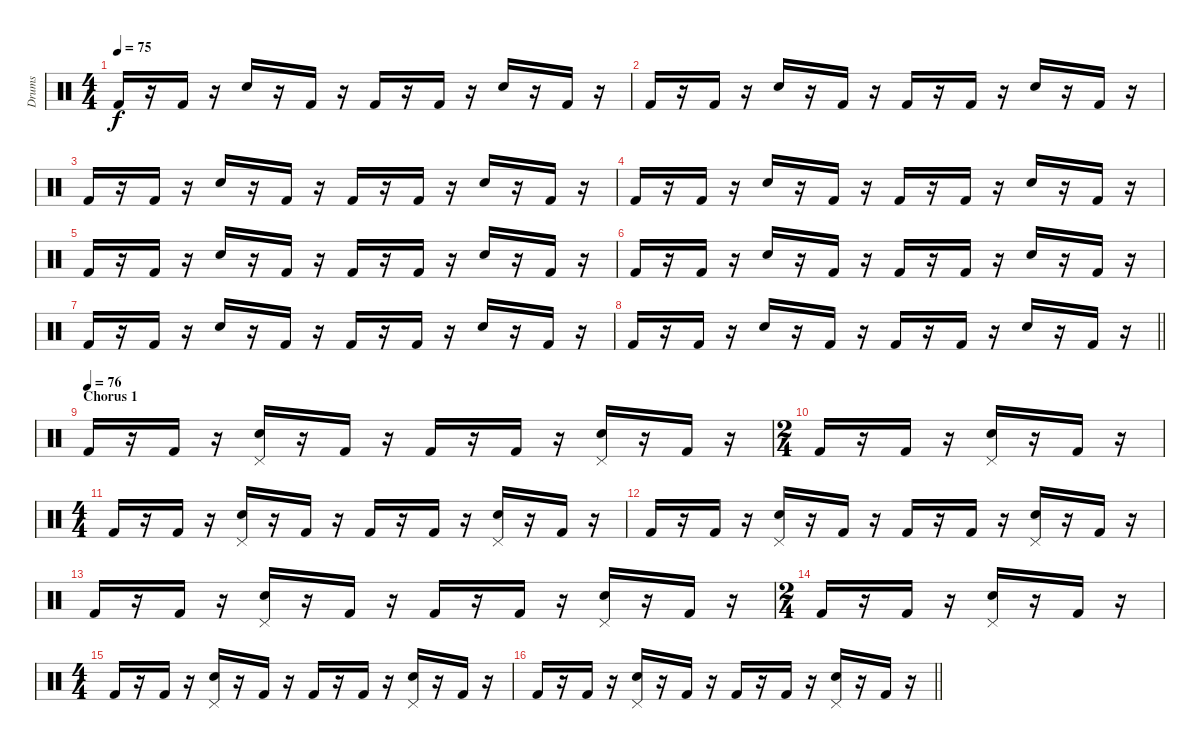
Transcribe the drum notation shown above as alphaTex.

\track ("Drums" "Drums") {instrument percussion}
\staff {score}
\articulation defaults
\ts (4 4)
\tempo 75
\clef neutral
\ks c "Kick (hit) 2".16{dy f}
r.16 "Kick (hit) 2".16 r.16 "Snare (hit) 2".16 r.16 "Kick (hit) 2".16 r.16 "Kick (hit) 2".16 r.16 "Kick (hit) 2".16 r.16 "Snare (hit) 2".16 r.16 "Kick (hit) 2".16 r.16 |
"Kick (hit) 2".16 r.16 "Kick (hit) 2".16 r.16 "Snare (hit) 2".16 r.16 "Kick (hit) 2".16 r.16 "Kick (hit) 2".16 r.16 "Kick (hit) 2".16 r.16 "Snare (hit) 2".16 r.16 "Kick (hit) 2".16 r.16 |
"Kick (hit) 2".16 r.16 "Kick (hit) 2".16 r.16 "Snare (hit) 2".16 r.16 "Kick (hit) 2".16 r.16 "Kick (hit) 2".16 r.16 "Kick (hit) 2".16 r.16 "Snare (hit) 2".16 r.16 "Kick (hit) 2".16 r.16 |
"Kick (hit) 2".16 r.16 "Kick (hit) 2".16 r.16 "Snare (hit) 2".16 r.16 "Kick (hit) 2".16 r.16 "Kick (hit) 2".16 r.16 "Kick (hit) 2".16 r.16 "Snare (hit) 2".16 r.16 "Kick (hit) 2".16 r.16 |
"Kick (hit) 2".16 r.16 "Kick (hit) 2".16 r.16 "Snare (hit) 2".16 r.16 "Kick (hit) 2".16 r.16 "Kick (hit) 2".16 r.16 "Kick (hit) 2".16 r.16 "Snare (hit) 2".16 r.16 "Kick (hit) 2".16 r.16 |
"Kick (hit) 2".16 r.16 "Kick (hit) 2".16 r.16 "Snare (hit) 2".16 r.16 "Kick (hit) 2".16 r.16 "Kick (hit) 2".16 r.16 "Kick (hit) 2".16 r.16 "Snare (hit) 2".16 r.16 "Kick (hit) 2".16 r.16 |
"Kick (hit) 2".16 r.16 "Kick (hit) 2".16 r.16 "Snare (hit) 2".16 r.16 "Kick (hit) 2".16 r.16 "Kick (hit) 2".16 r.16 "Kick (hit) 2".16 r.16 "Snare (hit) 2".16 r.16 "Kick (hit) 2".16 r.16 |
\barLineRight lightlight "Kick (hit) 2".16
r.16 "Kick (hit) 2".16 r.16 "Snare (hit) 2".16 r.16 "Kick (hit) 2".16 r.16 "Kick (hit) 2".16 r.16 "Kick (hit) 2".16 r.16 "Snare (hit) 2".16 r.16 "Kick (hit) 2".16 r.16 |
\section ("" "Chorus 1")
\tempo (76)
"Kick (hit) 2".16 r.16 "Kick (hit) 2".16 r.16 ("Pedal Hi-Hat (hit)" "Snare (hit) 2").16 r.16 "Kick (hit) 2".16 r.16 "Kick (hit) 2".16 r.16 "Kick (hit) 2".16 r.16 ("Pedal Hi-Hat (hit)" "Snare (hit) 2").16 r.16 "Kick (hit) 2".16 r.16 |
\ts (2 4)
"Kick (hit) 2".16 r.16 "Kick (hit) 2".16 r.16 ("Pedal Hi-Hat (hit)" "Snare (hit) 2").16 r.16 "Kick (hit) 2".16 r.16 |
\ts (4 4)
"Kick (hit) 2".16 r.16 "Kick (hit) 2".16 r.16 ("Pedal Hi-Hat (hit)" "Snare (hit) 2").16 r.16 "Kick (hit) 2".16 r.16 "Kick (hit) 2".16 r.16 "Kick (hit) 2".16 r.16 ("Pedal Hi-Hat (hit)" "Snare (hit) 2").16 r.16 "Kick (hit) 2".16 r.16 |
"Kick (hit) 2".16 r.16 "Kick (hit) 2".16 r.16 ("Pedal Hi-Hat (hit)" "Snare (hit) 2").16 r.16 "Kick (hit) 2".16 r.16 "Kick (hit) 2".16 r.16 "Kick (hit) 2".16 r.16 ("Pedal Hi-Hat (hit)" "Snare (hit) 2").16 r.16 "Kick (hit) 2".16 r.16 |
"Kick (hit) 2".16 r.16 "Kick (hit) 2".16 r.16 ("Pedal Hi-Hat (hit)" "Snare (hit) 2").16 r.16 "Kick (hit) 2".16 r.16 "Kick (hit) 2".16 r.16 "Kick (hit) 2".16 r.16 ("Pedal Hi-Hat (hit)" "Snare (hit) 2").16 r.16 "Kick (hit) 2".16 r.16 |
\ts (2 4)
"Kick (hit) 2".16 r.16 "Kick (hit) 2".16 r.16 ("Pedal Hi-Hat (hit)" "Snare (hit) 2").16 r.16 "Kick (hit) 2".16 r.16 |
\ts (4 4)
"Kick (hit) 2".16 r.16 "Kick (hit) 2".16 r.16 ("Pedal Hi-Hat (hit)" "Snare (hit) 2").16 r.16 "Kick (hit) 2".16 r.16 "Kick (hit) 2".16 r.16 "Kick (hit) 2".16 r.16 ("Pedal Hi-Hat (hit)" "Snare (hit) 2").16 r.16 "Kick (hit) 2".16 r.16 |
\barLineRight lightlight "Kick (hit) 2".16
r.16 "Kick (hit) 2".16 r.16 ("Pedal Hi-Hat (hit)" "Snare (hit) 2").16 r.16 "Kick (hit) 2".16 r.16 "Kick (hit) 2".16 r.16 "Kick (hit) 2".16 r.16 ("Pedal Hi-Hat (hit)" "Snare (hit) 2").16 r.16 "Kick (hit) 2".16 r.16
